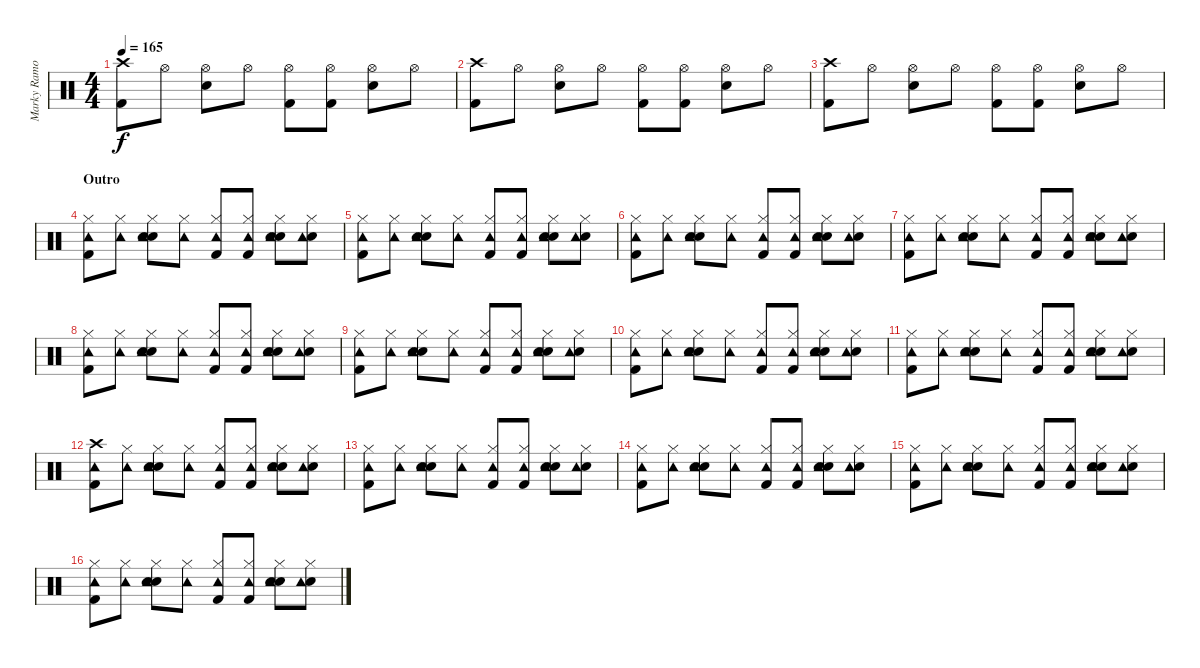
\track ("Marky Ramone" "Marky Ramo") {instrument percussion}
\staff {score}
\articulation defaults
\ts (4 4)
\tempo 165
\clef neutral
\ks c
("Crash high (hit)" "Kick (hit) 2").8{dy f} "Hi-Hat (open)".8 ("Hi-Hat (open)" "Snare (hit) 2").8 "Hi-Hat (open)".8 ("Hi-Hat (open)" "Kick (hit) 2").8 ("Hi-Hat (open)" "Kick (hit) 2").8 ("Hi-Hat (open)" "Snare (hit) 2").8 "Hi-Hat (open)".8 |
("Crash high (hit)" "Kick (hit) 2").8 "Hi-Hat (open)".8 ("Hi-Hat (open)" "Snare (hit) 2").8 "Hi-Hat (open)".8 ("Hi-Hat (open)" "Kick (hit) 2").8 ("Hi-Hat (open)" "Kick (hit) 2").8 ("Hi-Hat (open)" "Snare (hit) 2").8 "Hi-Hat (open)".8 |
("Crash high (hit)" "Kick (hit) 2").8 "Hi-Hat (open)".8 ("Hi-Hat (open)" "Snare (hit) 2").8 "Hi-Hat (open)".8 ("Hi-Hat (open)" "Kick (hit) 2").8 ("Hi-Hat (open)" "Kick (hit) 2").8 ("Hi-Hat (open)" "Snare (hit) 2").8 "Hi-Hat (open)".8 |
\section ("" "Outro")
("Hi-Hat (closed)" "Tambourine (hit)" "Kick (hit) 2").8 ("Hi-Hat (closed)" "Tambourine (hit)").8 ("Hi-Hat (closed)" "Hand Clap (hit)" "Tambourine (hit)" "Snare (hit) 2").8 ("Hi-Hat (closed)" "Tambourine (hit)").8 ("Hi-Hat (closed)" "Tambourine (hit)" "Kick (hit) 2").8 ("Hi-Hat (closed)" "Tambourine (hit)" "Kick (hit) 2").8 ("Hi-Hat (closed)" "Hand Clap (hit)" "Tambourine (hit)" "Snare (hit) 2").8 ("Hi-Hat (closed)" "Hand Clap (hit)" "Tambourine (hit)").8 |
("Hi-Hat (closed)" "Tambourine (hit)" "Kick (hit) 2").8 ("Hi-Hat (closed)" "Tambourine (hit)").8 ("Hi-Hat (closed)" "Hand Clap (hit)" "Tambourine (hit)" "Snare (hit) 2").8 ("Hi-Hat (closed)" "Tambourine (hit)").8 ("Hi-Hat (closed)" "Tambourine (hit)" "Kick (hit) 2").8 ("Hi-Hat (closed)" "Tambourine (hit)" "Kick (hit) 2").8 ("Hi-Hat (closed)" "Hand Clap (hit)" "Tambourine (hit)" "Snare (hit) 2").8 ("Hi-Hat (closed)" "Hand Clap (hit)" "Tambourine (hit)").8 |
("Hi-Hat (closed)" "Tambourine (hit)" "Kick (hit) 2").8 ("Hi-Hat (closed)" "Tambourine (hit)").8 ("Hi-Hat (closed)" "Hand Clap (hit)" "Tambourine (hit)" "Snare (hit) 2").8 ("Hi-Hat (closed)" "Tambourine (hit)").8 ("Hi-Hat (closed)" "Tambourine (hit)" "Kick (hit) 2").8 ("Hi-Hat (closed)" "Tambourine (hit)" "Kick (hit) 2").8 ("Hi-Hat (closed)" "Hand Clap (hit)" "Tambourine (hit)" "Snare (hit) 2").8 ("Hi-Hat (closed)" "Hand Clap (hit)" "Tambourine (hit)").8 |
("Hi-Hat (closed)" "Tambourine (hit)" "Kick (hit) 2").8 ("Hi-Hat (closed)" "Tambourine (hit)").8 ("Hi-Hat (closed)" "Hand Clap (hit)" "Tambourine (hit)" "Snare (hit) 2").8 ("Hi-Hat (closed)" "Tambourine (hit)").8 ("Hi-Hat (closed)" "Tambourine (hit)" "Kick (hit) 2").8 ("Hi-Hat (closed)" "Tambourine (hit)" "Kick (hit) 2").8 ("Hi-Hat (closed)" "Hand Clap (hit)" "Tambourine (hit)" "Snare (hit) 2").8 ("Hi-Hat (closed)" "Hand Clap (hit)" "Tambourine (hit)").8 |
("Hi-Hat (closed)" "Tambourine (hit)" "Kick (hit) 2").8 ("Hi-Hat (closed)" "Tambourine (hit)").8 ("Hi-Hat (closed)" "Hand Clap (hit)" "Tambourine (hit)" "Snare (hit) 2").8 ("Hi-Hat (closed)" "Tambourine (hit)").8 ("Hi-Hat (closed)" "Tambourine (hit)" "Kick (hit) 2").8 ("Hi-Hat (closed)" "Tambourine (hit)" "Kick (hit) 2").8 ("Hi-Hat (closed)" "Hand Clap (hit)" "Tambourine (hit)" "Snare (hit) 2").8 ("Hi-Hat (closed)" "Hand Clap (hit)" "Tambourine (hit)").8 |
("Hi-Hat (closed)" "Tambourine (hit)" "Kick (hit) 2").8 ("Hi-Hat (closed)" "Tambourine (hit)").8 ("Hi-Hat (closed)" "Hand Clap (hit)" "Tambourine (hit)" "Snare (hit) 2").8 ("Hi-Hat (closed)" "Tambourine (hit)").8 ("Hi-Hat (closed)" "Tambourine (hit)" "Kick (hit) 2").8 ("Hi-Hat (closed)" "Tambourine (hit)" "Kick (hit) 2").8 ("Hi-Hat (closed)" "Hand Clap (hit)" "Tambourine (hit)" "Snare (hit) 2").8 ("Hi-Hat (closed)" "Hand Clap (hit)" "Tambourine (hit)").8 |
("Hi-Hat (closed)" "Tambourine (hit)" "Kick (hit) 2").8 ("Hi-Hat (closed)" "Tambourine (hit)").8 ("Hi-Hat (closed)" "Hand Clap (hit)" "Tambourine (hit)" "Snare (hit) 2").8 ("Hi-Hat (closed)" "Tambourine (hit)").8 ("Hi-Hat (closed)" "Tambourine (hit)" "Kick (hit) 2").8 ("Hi-Hat (closed)" "Tambourine (hit)" "Kick (hit) 2").8 ("Hi-Hat (closed)" "Hand Clap (hit)" "Tambourine (hit)" "Snare (hit) 2").8 ("Hi-Hat (closed)" "Hand Clap (hit)" "Tambourine (hit)").8 |
("Hi-Hat (closed)" "Tambourine (hit)" "Kick (hit) 2").8 ("Hi-Hat (closed)" "Tambourine (hit)").8 ("Hi-Hat (closed)" "Hand Clap (hit)" "Tambourine (hit)" "Snare (hit) 2").8 ("Hi-Hat (closed)" "Tambourine (hit)").8 ("Hi-Hat (closed)" "Tambourine (hit)" "Kick (hit) 2").8 ("Hi-Hat (closed)" "Tambourine (hit)" "Kick (hit) 2").8 ("Hi-Hat (closed)" "Hand Clap (hit)" "Tambourine (hit)" "Snare (hit) 2").8 ("Hi-Hat (closed)" "Hand Clap (hit)" "Tambourine (hit)").8 |
("Crash high (hit)" "Tambourine (hit)" "Kick (hit) 2").8 ("Hi-Hat (closed)" "Tambourine (hit)").8 ("Hi-Hat (closed)" "Hand Clap (hit)" "Tambourine (hit)" "Snare (hit) 2").8 ("Hi-Hat (closed)" "Tambourine (hit)").8 ("Hi-Hat (closed)" "Tambourine (hit)" "Kick (hit) 2").8 ("Hi-Hat (closed)" "Tambourine (hit)" "Kick (hit) 2").8 ("Hi-Hat (closed)" "Hand Clap (hit)" "Tambourine (hit)" "Snare (hit) 2").8 ("Hi-Hat (closed)" "Hand Clap (hit)" "Tambourine (hit)").8 |
("Hi-Hat (closed)" "Tambourine (hit)" "Kick (hit) 2").8 ("Hi-Hat (closed)" "Tambourine (hit)").8 ("Hi-Hat (closed)" "Hand Clap (hit)" "Tambourine (hit)" "Snare (hit) 2").8 ("Hi-Hat (closed)" "Tambourine (hit)").8 ("Hi-Hat (closed)" "Tambourine (hit)" "Kick (hit) 2").8 ("Hi-Hat (closed)" "Tambourine (hit)" "Kick (hit) 2").8 ("Hi-Hat (closed)" "Hand Clap (hit)" "Tambourine (hit)" "Snare (hit) 2").8 ("Hi-Hat (closed)" "Hand Clap (hit)" "Tambourine (hit)").8 |
("Hi-Hat (closed)" "Tambourine (hit)" "Kick (hit) 2").8 ("Hi-Hat (closed)" "Tambourine (hit)").8 ("Hi-Hat (closed)" "Hand Clap (hit)" "Tambourine (hit)" "Snare (hit) 2").8 ("Hi-Hat (closed)" "Tambourine (hit)").8 ("Hi-Hat (closed)" "Tambourine (hit)" "Kick (hit) 2").8 ("Hi-Hat (closed)" "Tambourine (hit)" "Kick (hit) 2").8 ("Hi-Hat (closed)" "Hand Clap (hit)" "Tambourine (hit)" "Snare (hit) 2").8 ("Hi-Hat (closed)" "Hand Clap (hit)" "Tambourine (hit)").8 |
("Hi-Hat (closed)" "Tambourine (hit)" "Kick (hit) 2").8 ("Hi-Hat (closed)" "Tambourine (hit)").8 ("Hi-Hat (closed)" "Hand Clap (hit)" "Tambourine (hit)" "Snare (hit) 2").8 ("Hi-Hat (closed)" "Tambourine (hit)").8 ("Hi-Hat (closed)" "Tambourine (hit)" "Kick (hit) 2").8 ("Hi-Hat (closed)" "Tambourine (hit)" "Kick (hit) 2").8 ("Hi-Hat (closed)" "Hand Clap (hit)" "Tambourine (hit)" "Snare (hit) 2").8 ("Hi-Hat (closed)" "Hand Clap (hit)" "Tambourine (hit)").8 |
("Hi-Hat (closed)" "Tambourine (hit)" "Kick (hit) 2").8 ("Hi-Hat (closed)" "Tambourine (hit)").8 ("Hi-Hat (closed)" "Hand Clap (hit)" "Tambourine (hit)" "Snare (hit) 2").8 ("Hi-Hat (closed)" "Tambourine (hit)").8 ("Hi-Hat (closed)" "Tambourine (hit)" "Kick (hit) 2").8 ("Hi-Hat (closed)" "Tambourine (hit)" "Kick (hit) 2").8 ("Hi-Hat (closed)" "Hand Clap (hit)" "Tambourine (hit)" "Snare (hit) 2").8 ("Hi-Hat (closed)" "Hand Clap (hit)" "Tambourine (hit)").8
